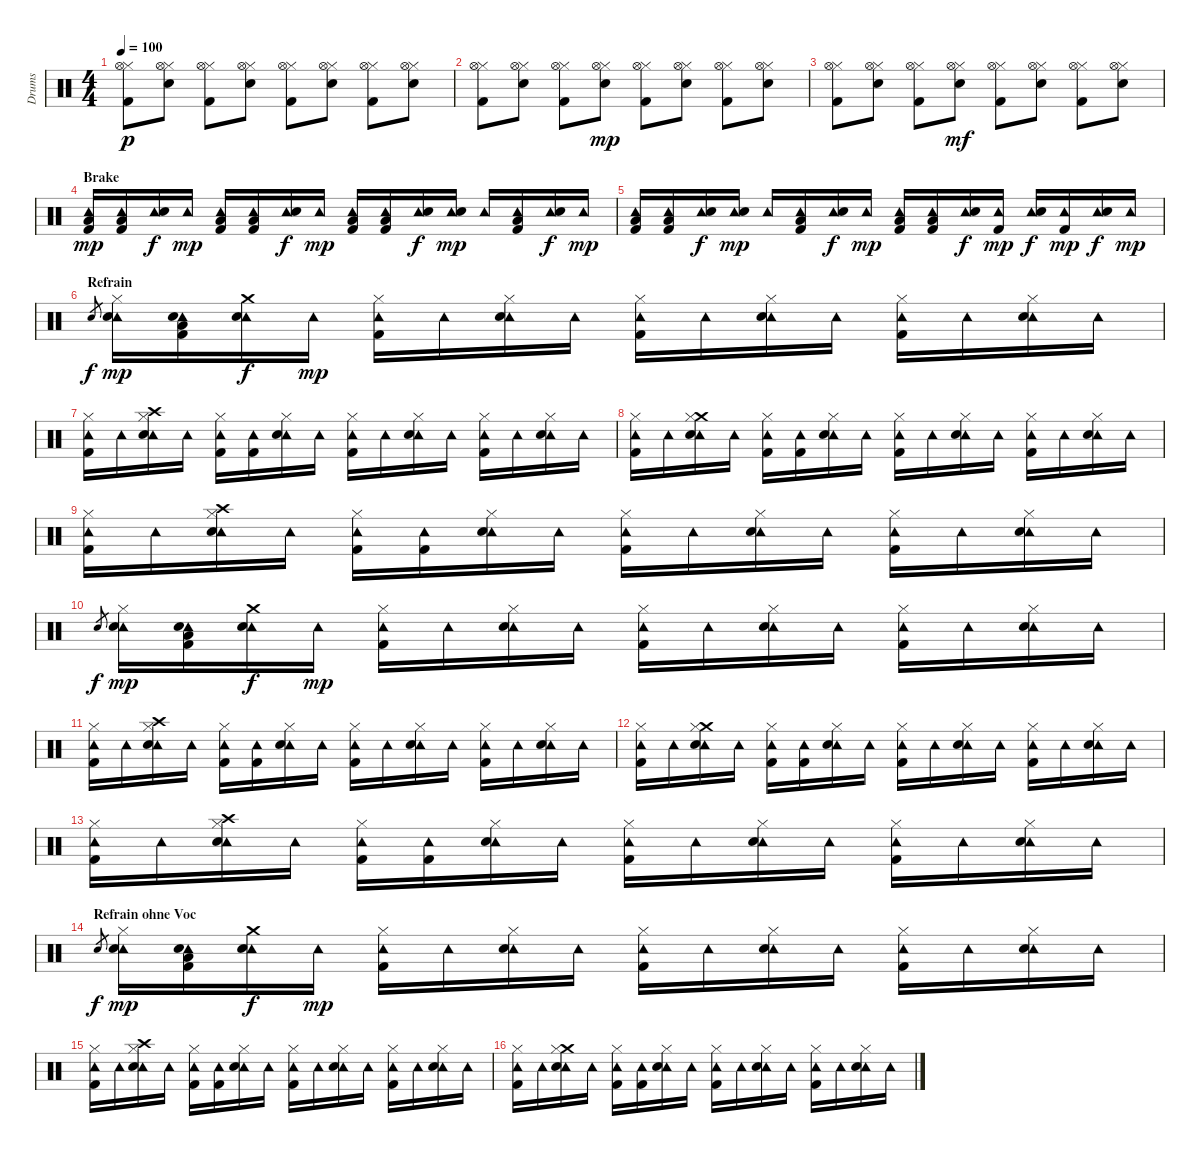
\track ("Drums" "Drums") {instrument percussion}
\staff {score}
\articulation defaults
\ts (4 4)
\tempo 100
\clef neutral
\ks c
("Hi-Hat (closed)" "Hi-Hat (open)" "Kick (hit) 2").8{dy p} ("Hi-Hat (closed)" "Hi-Hat (open)" "Electric Snare (hit)").8 ("Hi-Hat (closed)" "Hi-Hat (open)" "Kick (hit) 2").8 ("Hi-Hat (closed)" "Hi-Hat (open)" "Electric Snare (hit)").8 ("Hi-Hat (closed)" "Hi-Hat (open)" "Kick (hit) 2").8 ("Hi-Hat (closed)" "Hi-Hat (open)" "Electric Snare (hit)").8 ("Hi-Hat (closed)" "Hi-Hat (open)" "Kick (hit) 2").8 ("Hi-Hat (closed)" "Hi-Hat (open)" "Electric Snare (hit)").8 |
("Hi-Hat (closed)" "Hi-Hat (open)" "Kick (hit) 2").8 ("Hi-Hat (closed)" "Hi-Hat (open)" "Electric Snare (hit)").8 ("Hi-Hat (closed)" "Hi-Hat (open)" "Kick (hit) 2").8 ("Hi-Hat (closed)" "Hi-Hat (open)" "Electric Snare (hit)").8{dy mp} ("Hi-Hat (closed)" "Hi-Hat (open)" "Kick (hit) 2").8 ("Hi-Hat (closed)" "Hi-Hat (open)" "Electric Snare (hit)").8 ("Hi-Hat (closed)" "Hi-Hat (open)" "Kick (hit) 2").8 ("Hi-Hat (closed)" "Hi-Hat (open)" "Electric Snare (hit)").8 |
("Hi-Hat (closed)" "Hi-Hat (open)" "Kick (hit) 2").8 ("Hi-Hat (closed)" "Hi-Hat (open)" "Electric Snare (hit)").8 ("Hi-Hat (closed)" "Hi-Hat (open)" "Kick (hit) 2").8 ("Hi-Hat (closed)" "Hi-Hat (open)" "Electric Snare (hit)").8{dy mf} ("Hi-Hat (closed)" "Hi-Hat (open)" "Kick (hit) 2").8 ("Hi-Hat (closed)" "Hi-Hat (open)" "Electric Snare (hit)").8 ("Hi-Hat (closed)" "Hi-Hat (open)" "Kick (hit) 2").8 ("Hi-Hat (closed)" "Hi-Hat (open)" "Electric Snare (hit)").8 |
\section ("" "Brake")
("Tambourine (hit)" "Low Tom (hit)" "Kick (hit) 2").16{dy mp} ("Tambourine (hit)" "Low Tom (hit)" "Kick (hit) 2").16 ("Tambourine (hit)" "Electric Snare (hit)").16{dy f} "Tambourine (hit)".16{dy mp} ("Tambourine (hit)" "Low Tom (hit)" "Kick (hit) 2").16 ("Tambourine (hit)" "Low Tom (hit)" "Kick (hit) 2").16 ("Tambourine (hit)" "Electric Snare (hit)").16{dy f} "Tambourine (hit)".16{dy mp} ("Tambourine (hit)" "Low Tom (hit)" "Kick (hit) 2").16 ("Tambourine (hit)" "Low Tom (hit)" "Kick (hit) 2").16 ("Tambourine (hit)" "Electric Snare (hit)").16{dy f} ("Tambourine (hit)" "Electric Snare (hit)").16{dy mp} "Tambourine (hit)".16 ("Tambourine (hit)" "Low Tom (hit)" "Kick (hit) 2").16 ("Tambourine (hit)" "Electric Snare (hit)").16{dy f} "Tambourine (hit)".16{dy mp} |
("Tambourine (hit)" "Low Tom (hit)" "Kick (hit) 2").16 ("Tambourine (hit)" "Low Tom (hit)" "Kick (hit) 2").16 ("Tambourine (hit)" "Electric Snare (hit)").16{dy f} ("Tambourine (hit)" "Electric Snare (hit)").16{dy mp} "Tambourine (hit)".16 ("Tambourine (hit)" "Low Tom (hit)" "Kick (hit) 2").16 ("Tambourine (hit)" "Electric Snare (hit)").16{dy f} "Tambourine (hit)".16{dy mp} ("Tambourine (hit)" "Low Tom (hit)" "Kick (hit) 2").16 ("Tambourine (hit)" "Low Tom (hit)" "Kick (hit) 2").16 ("Tambourine (hit)" "Electric Snare (hit)").16{dy f} ("Tambourine (hit)" "Kick (hit) 2").16{dy mp} ("Tambourine (hit)" "Electric Snare (hit)").16{dy f} ("Tambourine (hit)" "Kick (hit) 2").16{dy mp} ("Tambourine (hit)" "Electric Snare (hit)").16{dy f} "Tambourine (hit)".16{dy mp} |
\section ("" "Refrain")
"Electric Snare (hit)".8{gr dy f} ("Hi-Hat (closed)" "Tambourine (hit)" "Electric Snare (hit)").16{dy mp} ("Tambourine (hit)" "Electric Snare (hit)" "Low Floor Tom (hit)" "Kick (hit) 2").16 ("Crash medium (hit)" "Tambourine (hit)" "Electric Snare (hit)").16{dy f} "Tambourine (hit)".16{dy mp} ("Hi-Hat (closed)" "Tambourine (hit)" "Kick (hit) 2").16 "Tambourine (hit)".16 ("Hi-Hat (closed)" "Tambourine (hit)" "Electric Snare (hit)").16 "Tambourine (hit)".16 ("Hi-Hat (closed)" "Tambourine (hit)" "Kick (hit) 2").16 "Tambourine (hit)".16 ("Hi-Hat (closed)" "Tambourine (hit)" "Electric Snare (hit)").16 "Tambourine (hit)".16 ("Hi-Hat (closed)" "Tambourine (hit)" "Kick (hit) 2").16 "Tambourine (hit)".16 ("Hi-Hat (closed)" "Tambourine (hit)" "Electric Snare (hit)").16 "Tambourine (hit)".16 |
("Hi-Hat (closed)" "Tambourine (hit)" "Kick (hit) 2").16 "Tambourine (hit)".16 ("Crash high (hit)" "Hi-Hat (closed)" "Tambourine (hit)" "Electric Snare (hit)").16 "Tambourine (hit)".16 ("Hi-Hat (closed)" "Tambourine (hit)" "Kick (hit) 2").16 ("Tambourine (hit)" "Kick (hit) 2").16 ("Hi-Hat (closed)" "Tambourine (hit)" "Electric Snare (hit)").16 "Tambourine (hit)".16 ("Hi-Hat (closed)" "Tambourine (hit)" "Kick (hit) 2").16 "Tambourine (hit)".16 ("Hi-Hat (closed)" "Tambourine (hit)" "Electric Snare (hit)").16 "Tambourine (hit)".16 ("Hi-Hat (closed)" "Tambourine (hit)" "Kick (hit) 2").16 "Tambourine (hit)".16 ("Hi-Hat (closed)" "Tambourine (hit)" "Electric Snare (hit)").16 "Tambourine (hit)".16 |
("Hi-Hat (closed)" "Tambourine (hit)" "Kick (hit) 2").16 "Tambourine (hit)".16 ("Crash medium (hit)" "Hi-Hat (closed)" "Tambourine (hit)" "Electric Snare (hit)").16 "Tambourine (hit)".16 ("Hi-Hat (closed)" "Tambourine (hit)" "Kick (hit) 2").16 ("Tambourine (hit)" "Kick (hit) 2").16 ("Hi-Hat (closed)" "Tambourine (hit)" "Electric Snare (hit)").16 "Tambourine (hit)".16 ("Hi-Hat (closed)" "Tambourine (hit)" "Kick (hit) 2").16 "Tambourine (hit)".16 ("Hi-Hat (closed)" "Tambourine (hit)" "Electric Snare (hit)").16 "Tambourine (hit)".16 ("Hi-Hat (closed)" "Tambourine (hit)" "Kick (hit) 2").16 "Tambourine (hit)".16 ("Hi-Hat (closed)" "Tambourine (hit)" "Electric Snare (hit)").16 "Tambourine (hit)".16 |
("Hi-Hat (closed)" "Tambourine (hit)" "Kick (hit) 2").16 "Tambourine (hit)".16 ("Crash high (hit)" "Hi-Hat (closed)" "Tambourine (hit)" "Electric Snare (hit)").16 "Tambourine (hit)".16 ("Hi-Hat (closed)" "Tambourine (hit)" "Kick (hit) 2").16 ("Tambourine (hit)" "Kick (hit) 2").16 ("Hi-Hat (closed)" "Tambourine (hit)" "Electric Snare (hit)").16 "Tambourine (hit)".16 ("Hi-Hat (closed)" "Tambourine (hit)" "Kick (hit) 2").16 "Tambourine (hit)".16 ("Hi-Hat (closed)" "Tambourine (hit)" "Electric Snare (hit)").16 "Tambourine (hit)".16 ("Hi-Hat (closed)" "Tambourine (hit)" "Kick (hit) 2").16 "Tambourine (hit)".16 ("Hi-Hat (closed)" "Tambourine (hit)" "Electric Snare (hit)").16 "Tambourine (hit)".16 |
"Electric Snare (hit)".8{gr dy f} ("Hi-Hat (closed)" "Tambourine (hit)" "Electric Snare (hit)").16{dy mp} ("Tambourine (hit)" "Electric Snare (hit)" "Low Floor Tom (hit)" "Kick (hit) 2").16 ("Crash medium (hit)" "Tambourine (hit)" "Electric Snare (hit)").16{dy f} "Tambourine (hit)".16{dy mp} ("Hi-Hat (closed)" "Tambourine (hit)" "Kick (hit) 2").16 "Tambourine (hit)".16 ("Hi-Hat (closed)" "Tambourine (hit)" "Electric Snare (hit)").16 "Tambourine (hit)".16 ("Hi-Hat (closed)" "Tambourine (hit)" "Kick (hit) 2").16 "Tambourine (hit)".16 ("Hi-Hat (closed)" "Tambourine (hit)" "Electric Snare (hit)").16 "Tambourine (hit)".16 ("Hi-Hat (closed)" "Tambourine (hit)" "Kick (hit) 2").16 "Tambourine (hit)".16 ("Hi-Hat (closed)" "Tambourine (hit)" "Electric Snare (hit)").16 "Tambourine (hit)".16 |
("Hi-Hat (closed)" "Tambourine (hit)" "Kick (hit) 2").16 "Tambourine (hit)".16 ("Crash high (hit)" "Hi-Hat (closed)" "Tambourine (hit)" "Electric Snare (hit)").16 "Tambourine (hit)".16 ("Hi-Hat (closed)" "Tambourine (hit)" "Kick (hit) 2").16 ("Tambourine (hit)" "Kick (hit) 2").16 ("Hi-Hat (closed)" "Tambourine (hit)" "Electric Snare (hit)").16 "Tambourine (hit)".16 ("Hi-Hat (closed)" "Tambourine (hit)" "Kick (hit) 2").16 "Tambourine (hit)".16 ("Hi-Hat (closed)" "Tambourine (hit)" "Electric Snare (hit)").16 "Tambourine (hit)".16 ("Hi-Hat (closed)" "Tambourine (hit)" "Kick (hit) 2").16 "Tambourine (hit)".16 ("Hi-Hat (closed)" "Tambourine (hit)" "Electric Snare (hit)").16 "Tambourine (hit)".16 |
("Hi-Hat (closed)" "Tambourine (hit)" "Kick (hit) 2").16 "Tambourine (hit)".16 ("Crash medium (hit)" "Hi-Hat (closed)" "Tambourine (hit)" "Electric Snare (hit)").16 "Tambourine (hit)".16 ("Hi-Hat (closed)" "Tambourine (hit)" "Kick (hit) 2").16 ("Tambourine (hit)" "Kick (hit) 2").16 ("Hi-Hat (closed)" "Tambourine (hit)" "Electric Snare (hit)").16 "Tambourine (hit)".16 ("Hi-Hat (closed)" "Tambourine (hit)" "Kick (hit) 2").16 "Tambourine (hit)".16 ("Hi-Hat (closed)" "Tambourine (hit)" "Electric Snare (hit)").16 "Tambourine (hit)".16 ("Hi-Hat (closed)" "Tambourine (hit)" "Kick (hit) 2").16 "Tambourine (hit)".16 ("Hi-Hat (closed)" "Tambourine (hit)" "Electric Snare (hit)").16 "Tambourine (hit)".16 |
("Hi-Hat (closed)" "Tambourine (hit)" "Kick (hit) 2").16 "Tambourine (hit)".16 ("Crash high (hit)" "Hi-Hat (closed)" "Tambourine (hit)" "Electric Snare (hit)").16 "Tambourine (hit)".16 ("Hi-Hat (closed)" "Tambourine (hit)" "Kick (hit) 2").16 ("Tambourine (hit)" "Kick (hit) 2").16 ("Hi-Hat (closed)" "Tambourine (hit)" "Electric Snare (hit)").16 "Tambourine (hit)".16 ("Hi-Hat (closed)" "Tambourine (hit)" "Kick (hit) 2").16 "Tambourine (hit)".16 ("Hi-Hat (closed)" "Tambourine (hit)" "Electric Snare (hit)").16 "Tambourine (hit)".16 ("Hi-Hat (closed)" "Tambourine (hit)" "Kick (hit) 2").16 "Tambourine (hit)".16 ("Hi-Hat (closed)" "Tambourine (hit)" "Electric Snare (hit)").16 "Tambourine (hit)".16 |
\section ("" "Refrain ohne Voc")
"Electric Snare (hit)".8{gr dy f} ("Hi-Hat (closed)" "Tambourine (hit)" "Electric Snare (hit)").16{dy mp} ("Tambourine (hit)" "Electric Snare (hit)" "Low Floor Tom (hit)" "Kick (hit) 2").16 ("Crash medium (hit)" "Tambourine (hit)" "Electric Snare (hit)").16{dy f} "Tambourine (hit)".16{dy mp} ("Hi-Hat (closed)" "Tambourine (hit)" "Kick (hit) 2").16 "Tambourine (hit)".16 ("Hi-Hat (closed)" "Tambourine (hit)" "Electric Snare (hit)").16 "Tambourine (hit)".16 ("Hi-Hat (closed)" "Tambourine (hit)" "Kick (hit) 2").16 "Tambourine (hit)".16 ("Hi-Hat (closed)" "Tambourine (hit)" "Electric Snare (hit)").16 "Tambourine (hit)".16 ("Hi-Hat (closed)" "Tambourine (hit)" "Kick (hit) 2").16 "Tambourine (hit)".16 ("Hi-Hat (closed)" "Tambourine (hit)" "Electric Snare (hit)").16 "Tambourine (hit)".16 |
("Hi-Hat (closed)" "Tambourine (hit)" "Kick (hit) 2").16 "Tambourine (hit)".16 ("Crash high (hit)" "Hi-Hat (closed)" "Tambourine (hit)" "Electric Snare (hit)").16 "Tambourine (hit)".16 ("Hi-Hat (closed)" "Tambourine (hit)" "Kick (hit) 2").16 ("Tambourine (hit)" "Kick (hit) 2").16 ("Hi-Hat (closed)" "Tambourine (hit)" "Electric Snare (hit)").16 "Tambourine (hit)".16 ("Hi-Hat (closed)" "Tambourine (hit)" "Kick (hit) 2").16 "Tambourine (hit)".16 ("Hi-Hat (closed)" "Tambourine (hit)" "Electric Snare (hit)").16 "Tambourine (hit)".16 ("Hi-Hat (closed)" "Tambourine (hit)" "Kick (hit) 2").16 "Tambourine (hit)".16 ("Hi-Hat (closed)" "Tambourine (hit)" "Electric Snare (hit)").16 "Tambourine (hit)".16 |
("Hi-Hat (closed)" "Tambourine (hit)" "Kick (hit) 2").16 "Tambourine (hit)".16 ("Crash medium (hit)" "Hi-Hat (closed)" "Tambourine (hit)" "Electric Snare (hit)").16 "Tambourine (hit)".16 ("Hi-Hat (closed)" "Tambourine (hit)" "Kick (hit) 2").16 ("Tambourine (hit)" "Kick (hit) 2").16 ("Hi-Hat (closed)" "Tambourine (hit)" "Electric Snare (hit)").16 "Tambourine (hit)".16 ("Hi-Hat (closed)" "Tambourine (hit)" "Kick (hit) 2").16 "Tambourine (hit)".16 ("Hi-Hat (closed)" "Tambourine (hit)" "Electric Snare (hit)").16 "Tambourine (hit)".16 ("Hi-Hat (closed)" "Tambourine (hit)" "Kick (hit) 2").16 "Tambourine (hit)".16 ("Hi-Hat (closed)" "Tambourine (hit)" "Electric Snare (hit)").16 "Tambourine (hit)".16
